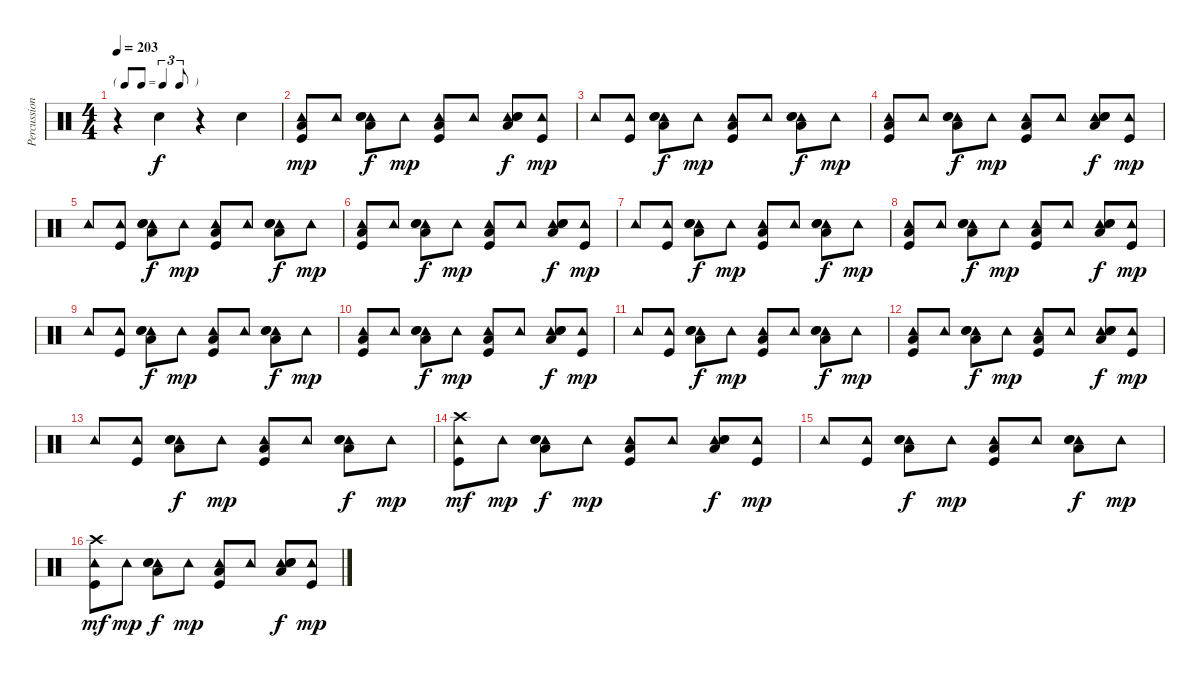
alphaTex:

\track ("Percussion" "Percussion") {instrument percussion}
\staff {score}
\articulation defaults
\ts (4 4)
\tf triplet8th
\tempo 203
\clef neutral
\ks c
r.4{dy f} "Hand Clap (hit)".4 r.4 "Hand Clap (hit)".4 |
("Tambourine (hit)" "Low Tom (hit)" "Kick (hit)").8{dy mp} "Tambourine (hit)".8 ("Tambourine (hit)" "Hand Clap (hit)" "Snare (hit) 2" "Low Tom (hit)").8{dy f} "Tambourine (hit)".8{dy mp} ("Tambourine (hit)" "Low Tom (hit)" "Kick (hit)").8 "Tambourine (hit)".8 ("Tambourine (hit)" "Hand Clap (hit)" "Snare (hit) 2" "Low Tom (hit)").8{dy f} ("Tambourine (hit)" "Kick (hit)").8{dy mp} |
"Tambourine (hit)".8 ("Tambourine (hit)" "Kick (hit)").8 ("Tambourine (hit)" "Hand Clap (hit)" "Snare (hit) 2" "Low Tom (hit)").8{dy f} "Tambourine (hit)".8{dy mp} ("Tambourine (hit)" "Low Tom (hit)" "Kick (hit)").8 "Tambourine (hit)".8 ("Tambourine (hit)" "Hand Clap (hit)" "Snare (hit) 2" "Low Tom (hit)").8{dy f} "Tambourine (hit)".8{dy mp} |
("Tambourine (hit)" "Low Tom (hit)" "Kick (hit)").8 "Tambourine (hit)".8 ("Tambourine (hit)" "Hand Clap (hit)" "Snare (hit) 2" "Low Tom (hit)").8{dy f} "Tambourine (hit)".8{dy mp} ("Tambourine (hit)" "Low Tom (hit)" "Kick (hit)").8 "Tambourine (hit)".8 ("Tambourine (hit)" "Hand Clap (hit)" "Snare (hit) 2" "Low Tom (hit)").8{dy f} ("Tambourine (hit)" "Kick (hit)").8{dy mp} |
"Tambourine (hit)".8 ("Tambourine (hit)" "Kick (hit)").8 ("Tambourine (hit)" "Hand Clap (hit)" "Snare (hit) 2" "Low Tom (hit)").8{dy f} "Tambourine (hit)".8{dy mp} ("Tambourine (hit)" "Low Tom (hit)" "Kick (hit)").8 "Tambourine (hit)".8 ("Tambourine (hit)" "Hand Clap (hit)" "Snare (hit) 2" "Low Tom (hit)").8{dy f} "Tambourine (hit)".8{dy mp} |
("Tambourine (hit)" "Low Tom (hit)" "Kick (hit)").8 "Tambourine (hit)".8 ("Tambourine (hit)" "Hand Clap (hit)" "Snare (hit) 2" "Low Tom (hit)").8{dy f} "Tambourine (hit)".8{dy mp} ("Tambourine (hit)" "Low Tom (hit)" "Kick (hit)").8 "Tambourine (hit)".8 ("Tambourine (hit)" "Hand Clap (hit)" "Snare (hit) 2" "Low Tom (hit)").8{dy f} ("Tambourine (hit)" "Kick (hit)").8{dy mp} |
"Tambourine (hit)".8 ("Tambourine (hit)" "Kick (hit)").8 ("Tambourine (hit)" "Hand Clap (hit)" "Snare (hit) 2" "Low Tom (hit)").8{dy f} "Tambourine (hit)".8{dy mp} ("Tambourine (hit)" "Low Tom (hit)" "Kick (hit)").8 "Tambourine (hit)".8 ("Tambourine (hit)" "Hand Clap (hit)" "Snare (hit) 2" "Low Tom (hit)").8{dy f} "Tambourine (hit)".8{dy mp} |
("Tambourine (hit)" "Low Tom (hit)" "Kick (hit)").8 "Tambourine (hit)".8 ("Tambourine (hit)" "Hand Clap (hit)" "Snare (hit) 2" "Low Tom (hit)").8{dy f} "Tambourine (hit)".8{dy mp} ("Tambourine (hit)" "Low Tom (hit)" "Kick (hit)").8 "Tambourine (hit)".8 ("Tambourine (hit)" "Hand Clap (hit)" "Snare (hit) 2" "Low Tom (hit)").8{dy f} ("Tambourine (hit)" "Kick (hit)").8{dy mp} |
"Tambourine (hit)".8 ("Tambourine (hit)" "Kick (hit)").8 ("Tambourine (hit)" "Hand Clap (hit)" "Snare (hit) 2" "Low Tom (hit)").8{dy f} "Tambourine (hit)".8{dy mp} ("Tambourine (hit)" "Low Tom (hit)" "Kick (hit)").8 "Tambourine (hit)".8 ("Tambourine (hit)" "Hand Clap (hit)" "Snare (hit) 2" "Low Tom (hit)").8{dy f} "Tambourine (hit)".8{dy mp} |
("Tambourine (hit)" "Low Tom (hit)" "Kick (hit)").8 "Tambourine (hit)".8 ("Tambourine (hit)" "Hand Clap (hit)" "Snare (hit) 2" "Low Tom (hit)").8{dy f} "Tambourine (hit)".8{dy mp} ("Tambourine (hit)" "Low Tom (hit)" "Kick (hit)").8 "Tambourine (hit)".8 ("Tambourine (hit)" "Hand Clap (hit)" "Snare (hit) 2" "Low Tom (hit)").8{dy f} ("Tambourine (hit)" "Kick (hit)").8{dy mp} |
"Tambourine (hit)".8 ("Tambourine (hit)" "Kick (hit)").8 ("Tambourine (hit)" "Hand Clap (hit)" "Snare (hit) 2" "Low Tom (hit)").8{dy f} "Tambourine (hit)".8{dy mp} ("Tambourine (hit)" "Low Tom (hit)" "Kick (hit)").8 "Tambourine (hit)".8 ("Tambourine (hit)" "Hand Clap (hit)" "Snare (hit) 2" "Low Tom (hit)").8{dy f} "Tambourine (hit)".8{dy mp} |
("Tambourine (hit)" "Low Tom (hit)" "Kick (hit)").8 "Tambourine (hit)".8 ("Tambourine (hit)" "Hand Clap (hit)" "Snare (hit) 2" "Low Tom (hit)").8{dy f} "Tambourine (hit)".8{dy mp} ("Tambourine (hit)" "Low Tom (hit)" "Kick (hit)").8 "Tambourine (hit)".8 ("Tambourine (hit)" "Hand Clap (hit)" "Snare (hit) 2" "Low Tom (hit)").8{dy f} ("Tambourine (hit)" "Kick (hit)").8{dy mp} |
"Tambourine (hit)".8 ("Tambourine (hit)" "Kick (hit)").8 ("Tambourine (hit)" "Hand Clap (hit)" "Snare (hit) 2" "Low Tom (hit)").8{dy f} "Tambourine (hit)".8{dy mp} ("Tambourine (hit)" "Low Tom (hit)" "Kick (hit)").8 "Tambourine (hit)".8 ("Tambourine (hit)" "Hand Clap (hit)" "Snare (hit) 2" "Low Tom (hit)").8{dy f} "Tambourine (hit)".8{dy mp} |
("Tambourine (hit)" "Crash high (hit)" "Kick (hit)").8{dy mf} "Tambourine (hit)".8{dy mp} ("Tambourine (hit)" "Hand Clap (hit)" "Snare (hit) 2" "Low Tom (hit)").8{dy f} "Tambourine (hit)".8{dy mp} ("Tambourine (hit)" "Low Tom (hit)" "Kick (hit)").8 "Tambourine (hit)".8 ("Tambourine (hit)" "Hand Clap (hit)" "Snare (hit) 2" "Low Tom (hit)").8{dy f} ("Tambourine (hit)" "Kick (hit)").8{dy mp} |
"Tambourine (hit)".8 ("Tambourine (hit)" "Kick (hit)").8 ("Tambourine (hit)" "Hand Clap (hit)" "Snare (hit) 2" "Low Tom (hit)").8{dy f} "Tambourine (hit)".8{dy mp} ("Tambourine (hit)" "Low Tom (hit)" "Kick (hit)").8 "Tambourine (hit)".8 ("Tambourine (hit)" "Hand Clap (hit)" "Snare (hit) 2" "Low Tom (hit)").8{dy f} "Tambourine (hit)".8{dy mp} |
("Tambourine (hit)" "Crash high (hit)" "Kick (hit)").8{dy mf} "Tambourine (hit)".8{dy mp} ("Tambourine (hit)" "Hand Clap (hit)" "Snare (hit) 2" "Low Tom (hit)").8{dy f} "Tambourine (hit)".8{dy mp} ("Tambourine (hit)" "Low Tom (hit)" "Kick (hit)").8 "Tambourine (hit)".8 ("Tambourine (hit)" "Hand Clap (hit)" "Snare (hit) 2" "Low Tom (hit)").8{dy f} ("Tambourine (hit)" "Kick (hit)").8{dy mp}
